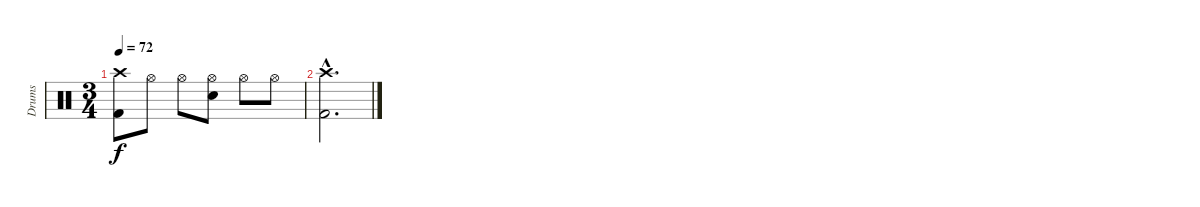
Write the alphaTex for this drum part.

\track ("Drums" "Drums") {instrument percussion}
\staff {score}
\articulation defaults
\ts (3 4)
\tempo 72
\clef neutral
\ks c
("Crash high (hit)" "Kick (hit) 2").8{dy f} "Hi-Hat (open)".8 "Hi-Hat (open)".8 ("Hi-Hat (open)" "Electric Snare (hit)").8 "Hi-Hat (open)".8 "Hi-Hat (open)".8 |
("Crash high (hit)"{hac} "Kick (hit) 2"{hac}).2{d}
